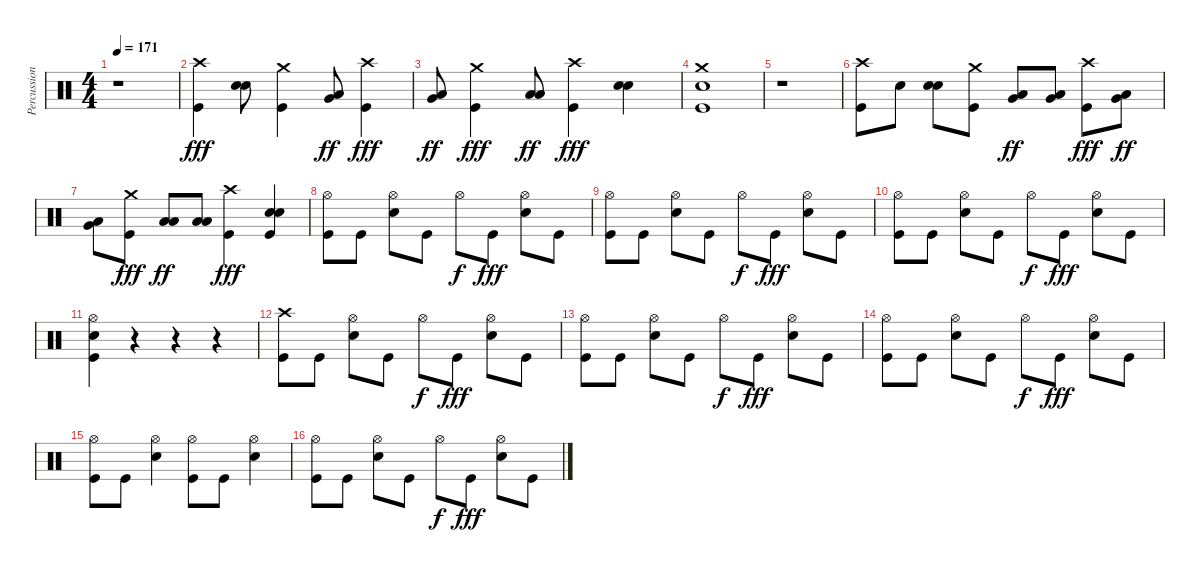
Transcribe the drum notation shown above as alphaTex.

\track ("Percussion" "Percussion") {instrument percussion}
\staff {score}
\articulation defaults
\ts (4 4)
\tempo 171
\clef neutral
\ks c
r.1{dy fff} |
("Crash high (hit)" "Kick (hit)").4 ("Electric Snare (hit)" "Snare (hit) 2").8 ("Crash medium (hit)" "Kick (hit)").4 ("Very Low Tom (hit)" "Low Tom (hit)").8{dy ff} ("Crash high (hit)" "Kick (hit)").4{dy fff} |
("Low Floor Tom (hit)" "Very Low Tom (hit)").8{dy ff} ("Crash medium (hit)" "Kick (hit)").4{dy fff} ("Low Floor Tom (hit)" "Low Floor Tom (hit)").8{dy ff} ("Crash high (hit)" "Kick (hit)").4{dy fff} ("Electric Snare (hit)" "Snare (hit) 2").4 |
("Crash medium (hit)" "Snare (hit) 2" "Kick (hit)").1 |
r.1 |
("Crash high (hit)" "Kick (hit)").8 "Snare (hit) 2".8 ("Electric Snare (hit)" "Snare (hit) 2").8 ("Crash medium (hit)" "Kick (hit)").8 ("Very Low Tom (hit)" "Low Tom (hit)").8{dy ff} ("Very Low Tom (hit)" "Low Tom (hit)").8 ("Crash high (hit)" "Kick (hit)").8{dy fff} ("Low Floor Tom (hit)" "Very Low Tom (hit)").8{dy ff} |
("Low Floor Tom (hit)" "Very Low Tom (hit)").8 ("Crash medium (hit)" "Kick (hit)").8{dy fff} ("Low Floor Tom (hit)" "Low Floor Tom (hit)").8{dy ff} ("Low Floor Tom (hit)" "Low Floor Tom (hit)").8 ("Crash high (hit)" "Kick (hit)").4{dy fff} ("Electric Snare (hit)" "Snare (hit) 2" "Kick (hit)").4 |
("Hi-Hat (open)" "Kick (hit)").8 "Kick (hit)".8 ("Hi-Hat (open)" "Snare (hit) 2").8 "Kick (hit)".8 "Hi-Hat (open)".8{dy f} "Kick (hit)".8{dy fff} ("Hi-Hat (open)" "Snare (hit) 2").8 "Kick (hit)".8 |
("Hi-Hat (open)" "Kick (hit)").8 "Kick (hit)".8 ("Hi-Hat (open)" "Snare (hit) 2").8 "Kick (hit)".8 "Hi-Hat (open)".8{dy f} "Kick (hit)".8{dy fff} ("Hi-Hat (open)" "Snare (hit) 2").8 "Kick (hit)".8 |
("Hi-Hat (open)" "Kick (hit)").8 "Kick (hit)".8 ("Hi-Hat (open)" "Snare (hit) 2").8 "Kick (hit)".8 "Hi-Hat (open)".8{dy f} "Kick (hit)".8{dy fff} ("Hi-Hat (open)" "Snare (hit) 2").8 "Kick (hit)".8 |
("Hi-Hat (open)" "Snare (hit) 2" "Kick (hit)").4 r.4 r.4 r.4 |
("Crash high (hit)" "Kick (hit)").8 "Kick (hit)".8 ("Hi-Hat (open)" "Snare (hit) 2").8 "Kick (hit)".8 "Hi-Hat (open)".8{dy f} "Kick (hit)".8{dy fff} ("Hi-Hat (open)" "Snare (hit) 2").8 "Kick (hit)".8 |
("Hi-Hat (open)" "Kick (hit)").8 "Kick (hit)".8 ("Hi-Hat (open)" "Snare (hit) 2").8 "Kick (hit)".8 "Hi-Hat (open)".8{dy f} "Kick (hit)".8{dy fff} ("Hi-Hat (open)" "Snare (hit) 2").8 "Kick (hit)".8 |
("Hi-Hat (open)" "Kick (hit)").8 "Kick (hit)".8 ("Hi-Hat (open)" "Snare (hit) 2").8 "Kick (hit)".8 "Hi-Hat (open)".8{dy f} "Kick (hit)".8{dy fff} ("Hi-Hat (open)" "Snare (hit) 2").8 "Kick (hit)".8 |
("Hi-Hat (open)" "Kick (hit)").8 "Kick (hit)".8 ("Hi-Hat (open)" "Snare (hit) 2").4 ("Hi-Hat (open)" "Kick (hit)").8 "Kick (hit)".8 ("Hi-Hat (open)" "Snare (hit) 2").4 |
("Hi-Hat (open)" "Kick (hit)").8 "Kick (hit)".8 ("Hi-Hat (open)" "Snare (hit) 2").8 "Kick (hit)".8 "Hi-Hat (open)".8{dy f} "Kick (hit)".8{dy fff} ("Hi-Hat (open)" "Snare (hit) 2").8 "Kick (hit)".8
